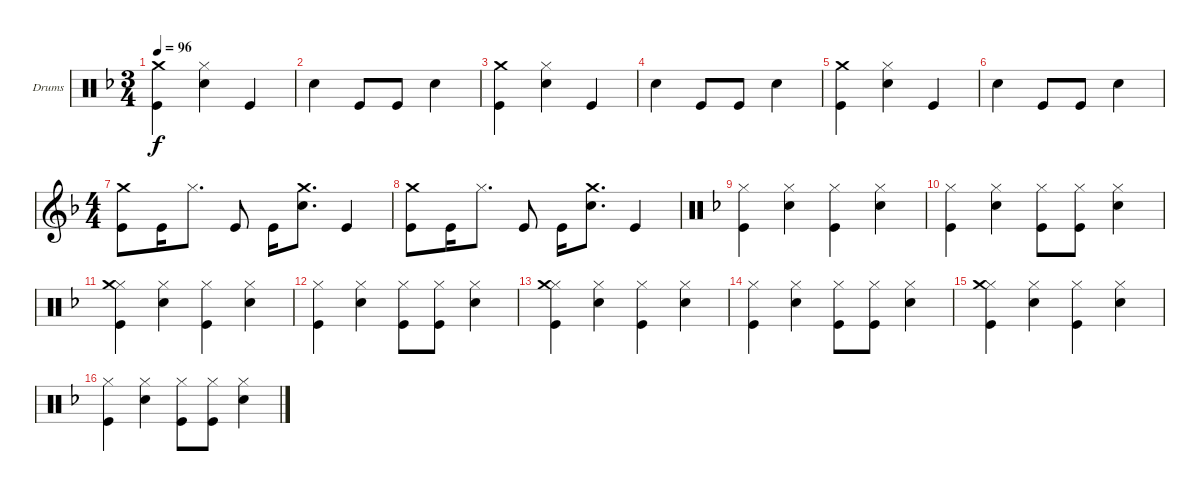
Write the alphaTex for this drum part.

\defaultSystemsLayout 4
\bracketExtendMode groupsimilarinstruments
\firstSystemTrackNameOrientation horizontal
\otherSystemsTrackNameOrientation horizontal
\track ("Drumkit" "Drums") {instrument percussion}
\staff {score}
\articulation defaults
\ts (3 4)
\tempo 96
\clef neutral
\scale
0.333333
\ks dminor
("Kick (hit)" "Crash medium (hit)").4{dy f} ("Snare (hit) 2" "Hi-Hat (closed)").4 "Kick (hit)".4 |
\scale
0.333333 "Snare (hit) 2".4 "Kick (hit)".8 "Kick (hit)".8 "Snare (hit) 2".4 |
\scale
0.333333 ("Kick (hit)" "Crash medium (hit)").4 ("Snare (hit) 2" "Hi-Hat (closed)").4 "Kick (hit)".4 |
\scale
0.333333 "Snare (hit) 2".4 "Kick (hit)".8 "Kick (hit)".8 "Snare (hit) 2".4 |
\scale
0.333333 ("Kick (hit)" "Crash medium (hit)").4 ("Snare (hit) 2" "Hi-Hat (closed)").4 "Kick (hit)".4 |
\scale
0.333333 "Snare (hit) 2".4 "Kick (hit)".8 "Kick (hit)".8 "Snare (hit) 2".4 |
\ts (4 4)
\clef g2
\scale
0.333333 ("Kick (hit)" "Crash medium (hit)").8 "Kick (hit)".16 "Hi-Hat (closed)".8{d} "Kick (hit)".8 "Kick (hit)".16 ("Snare (hit) 2" "Crash medium (hit)").8{d} "Kick (hit)".4 |
\scale
0.333333 ("Kick (hit)" "Crash medium (hit)").8 "Kick (hit)".16 "Hi-Hat (closed)".8{d} "Kick (hit)".8 "Kick (hit)".16 ("Snare (hit) 2" "Crash medium (hit)").8{d} "Kick (hit)".4 |
\clef neutral
\scale
0.333333 ("Kick (hit)" "Hi-Hat (closed)").4 ("Snare (hit) 2" "Hi-Hat (closed)").4 ("Kick (hit)" "Hi-Hat (closed)").4 ("Hi-Hat (closed)" "Snare (hit) 2").4 |
\scale
0.333333 ("Kick (hit)" "Hi-Hat (closed)").4 ("Snare (hit) 2" "Hi-Hat (closed)").4 ("Kick (hit)" "Hi-Hat (closed)").8 ("Hi-Hat (closed)" "Kick (hit)").8 ("Snare (hit) 2" "Hi-Hat (closed)").4 |
\scale
0.333333 ("Kick (hit)" "Hi-Hat (closed)" "Crash medium (hit)").4 ("Snare (hit) 2" "Hi-Hat (closed)").4 ("Kick (hit)" "Hi-Hat (closed)").4 ("Hi-Hat (closed)" "Snare (hit) 2").4 |
\scale
0.333333 ("Kick (hit)" "Hi-Hat (closed)").4 ("Snare (hit) 2" "Hi-Hat (closed)").4 ("Kick (hit)" "Hi-Hat (closed)").8 ("Hi-Hat (closed)" "Kick (hit)").8 ("Snare (hit) 2" "Hi-Hat (closed)").4 |
\scale
0.333333 ("Kick (hit)" "Hi-Hat (closed)" "Crash medium (hit)").4 ("Snare (hit) 2" "Hi-Hat (closed)").4 ("Kick (hit)" "Hi-Hat (closed)").4 ("Hi-Hat (closed)" "Snare (hit) 2").4 |
\scale
0.333333 ("Kick (hit)" "Hi-Hat (closed)").4 ("Snare (hit) 2" "Hi-Hat (closed)").4 ("Kick (hit)" "Hi-Hat (closed)").8 ("Hi-Hat (closed)" "Kick (hit)").8 ("Snare (hit) 2" "Hi-Hat (closed)").4 |
\scale
0.333333 ("Kick (hit)" "Hi-Hat (closed)" "Crash medium (hit)").4 ("Snare (hit) 2" "Hi-Hat (closed)").4 ("Kick (hit)" "Hi-Hat (closed)").4 ("Hi-Hat (closed)" "Snare (hit) 2").4 |
\scale
0.333333 ("Kick (hit)" "Hi-Hat (closed)").4 ("Snare (hit) 2" "Hi-Hat (closed)").4 ("Kick (hit)" "Hi-Hat (closed)").8 ("Hi-Hat (closed)" "Kick (hit)").8 ("Snare (hit) 2" "Hi-Hat (closed)").4
